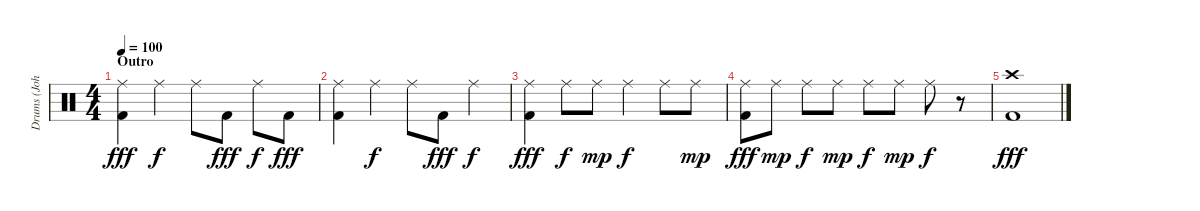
\track ("Drums (John Siomos)" "Drums (Joh") {instrument percussion}
\staff {score}
\articulation defaults
\ts (4 4)
\section ("" "Outro")
\tempo 100
\clef neutral
\ks c
("Ride (middle)" "Kick (hit) 2").4{dy fff} "Ride (middle)".4{dy f} "Ride (middle)".8 "Kick (hit) 2".8{dy fff} "Ride (middle)".8{dy f} "Kick (hit) 2".8{dy fff} |
("Ride (middle)" "Kick (hit) 2").4 "Ride (middle)".4{dy f} "Ride (middle)".8 "Kick (hit) 2".8{dy fff} "Ride (middle)".4{dy f} |
("Ride (middle)" "Kick (hit) 2").4{dy fff} "Ride (middle)".8{dy f} "Ride (middle)".8{dy mp} "Ride (middle)".4{dy f} "Ride (middle)".8 "Ride (middle)".8{dy mp} |
("Ride (middle)" "Kick (hit) 2").8{dy fff} "Ride (middle)".8{dy mp} "Ride (middle)".8{dy f} "Ride (middle)".8{dy mp} "Ride (middle)".8{dy f} "Ride (middle)".8{dy mp} "Ride (middle)".8{dy f} r.8 |
("Crash high (hit)" "Kick (hit) 2").1{dy fff}
